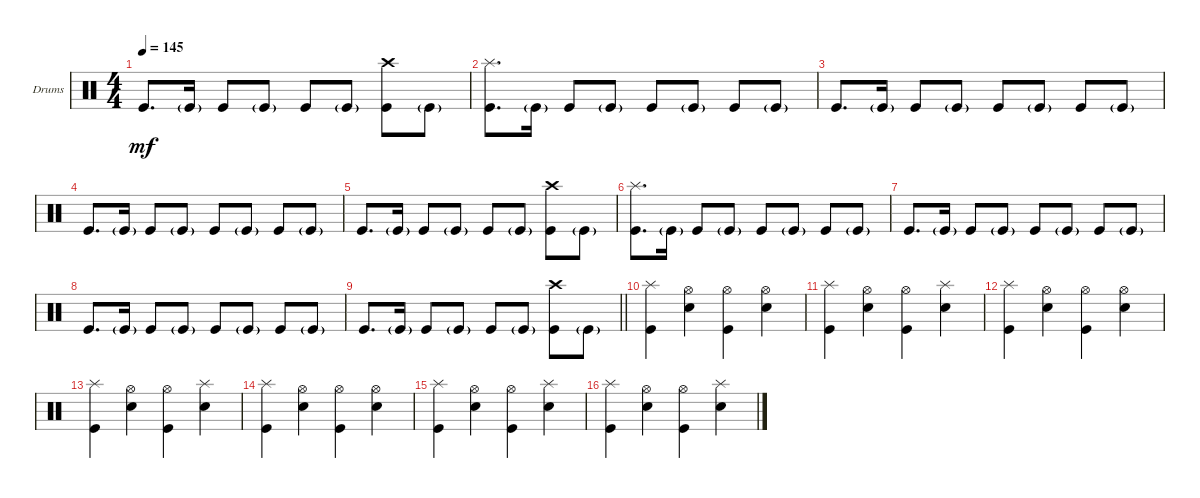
\bracketExtendMode groupsimilarinstruments
\firstSystemTrackNameOrientation horizontal
\otherSystemsTrackNameOrientation horizontal
\track ("Drums" "Drums") {instrument percussion}
\staff {score}
\articulation defaults
\ts (4 4)
\tempo 145
\clef neutral
\ks c "Kick (hit)".8{d dy mf} "Kick (hit)"{g}.16 "Kick (hit)".8 "Kick (hit)"{g}.8 "Kick (hit)".8 "Kick (hit)"{g}.8
("Kick (hit)" "Crash high (hit)").8 "Kick (hit)"{g}.8 |
("Kick (hit)" "Splash (hit)").8{d} "Kick (hit)"{g}.16 "Kick (hit)".8 "Kick (hit)"{g}.8 "Kick (hit)".8 "Kick (hit)"{g}.8 "Kick (hit)".8 "Kick (hit)"{g}.8 |
"Kick (hit)".8{d} "Kick (hit)"{g}.16 "Kick (hit)".8 "Kick (hit)"{g}.8 "Kick (hit)".8 "Kick (hit)"{g}.8 "Kick (hit)".8 "Kick (hit)"{g}.8 |
"Kick (hit)".8{d} "Kick (hit)"{g}.16 "Kick (hit)".8 "Kick (hit)"{g}.8 "Kick (hit)".8 "Kick (hit)"{g}.8 "Kick (hit)".8 "Kick (hit)"{g}.8 |
"Kick (hit)".8{d} "Kick (hit)"{g}.16 "Kick (hit)".8 "Kick (hit)"{g}.8 "Kick (hit)".8 "Kick (hit)"{g}.8 ("Kick (hit)" "Crash high (hit)").8 "Kick (hit)"{g}.8 |
("Kick (hit)" "Splash (hit)").8{d} "Kick (hit)"{g}.16 "Kick (hit)".8 "Kick (hit)"{g}.8 "Kick (hit)".8 "Kick (hit)"{g}.8 "Kick (hit)".8 "Kick (hit)"{g}.8 |
"Kick (hit)".8{d} "Kick (hit)"{g}.16 "Kick (hit)".8 "Kick (hit)"{g}.8 "Kick (hit)".8 "Kick (hit)"{g}.8 "Kick (hit)".8 "Kick (hit)"{g}.8 |
"Kick (hit)".8{d} "Kick (hit)"{g}.16 "Kick (hit)".8 "Kick (hit)"{g}.8 "Kick (hit)".8 "Kick (hit)"{g}.8 "Kick (hit)".8 "Kick (hit)"{g}.8 |
\barLineRight lightlight "Kick (hit)".8{d} "Kick (hit)"{g}.16 "Kick (hit)".8 "Kick (hit)"{g}.8 "Kick (hit)".8 "Kick (hit)"{g}.8
("Kick (hit)" "Crash high (hit)").8 "Kick (hit)"{g}.8 |
\scale
0.333333 ("Kick (hit)" "Splash (hit)").4 ("Snare (hit) 2" "Hi-Hat (open)").4 ("Kick (hit)" "Hi-Hat (open)").4 ("Snare (hit) 2" "Hi-Hat (open)").4 |
\scale
0.333333 ("Kick (hit)" "Splash (hit)").4 ("Snare (hit) 2" "Hi-Hat (open)").4 ("Kick (hit)" "Hi-Hat (open)").4 ("Snare (hit) 2" "Splash (hit)").4 |
("Kick (hit)" "Splash (hit)").4 ("Snare (hit) 2" "Hi-Hat (open)").4 ("Kick (hit)" "Hi-Hat (open)").4 ("Snare (hit) 2" "Hi-Hat (open)").4 |
("Kick (hit)" "Splash (hit)").4 ("Snare (hit) 2" "Hi-Hat (open)").4 ("Kick (hit)" "Hi-Hat (open)").4 ("Snare (hit) 2" "Splash (hit)").4 |
("Kick (hit)" "Splash (hit)").4 ("Snare (hit) 2" "Hi-Hat (open)").4 ("Kick (hit)" "Hi-Hat (open)").4 ("Snare (hit) 2" "Hi-Hat (open)").4 |
("Kick (hit)" "Splash (hit)").4 ("Snare (hit) 2" "Hi-Hat (open)").4 ("Kick (hit)" "Hi-Hat (open)").4 ("Snare (hit) 2" "Splash (hit)").4 |
("Kick (hit)" "Splash (hit)").4 ("Snare (hit) 2" "Hi-Hat (open)").4 ("Kick (hit)" "Hi-Hat (open)").4 ("Snare (hit) 2" "Splash (hit)").4
